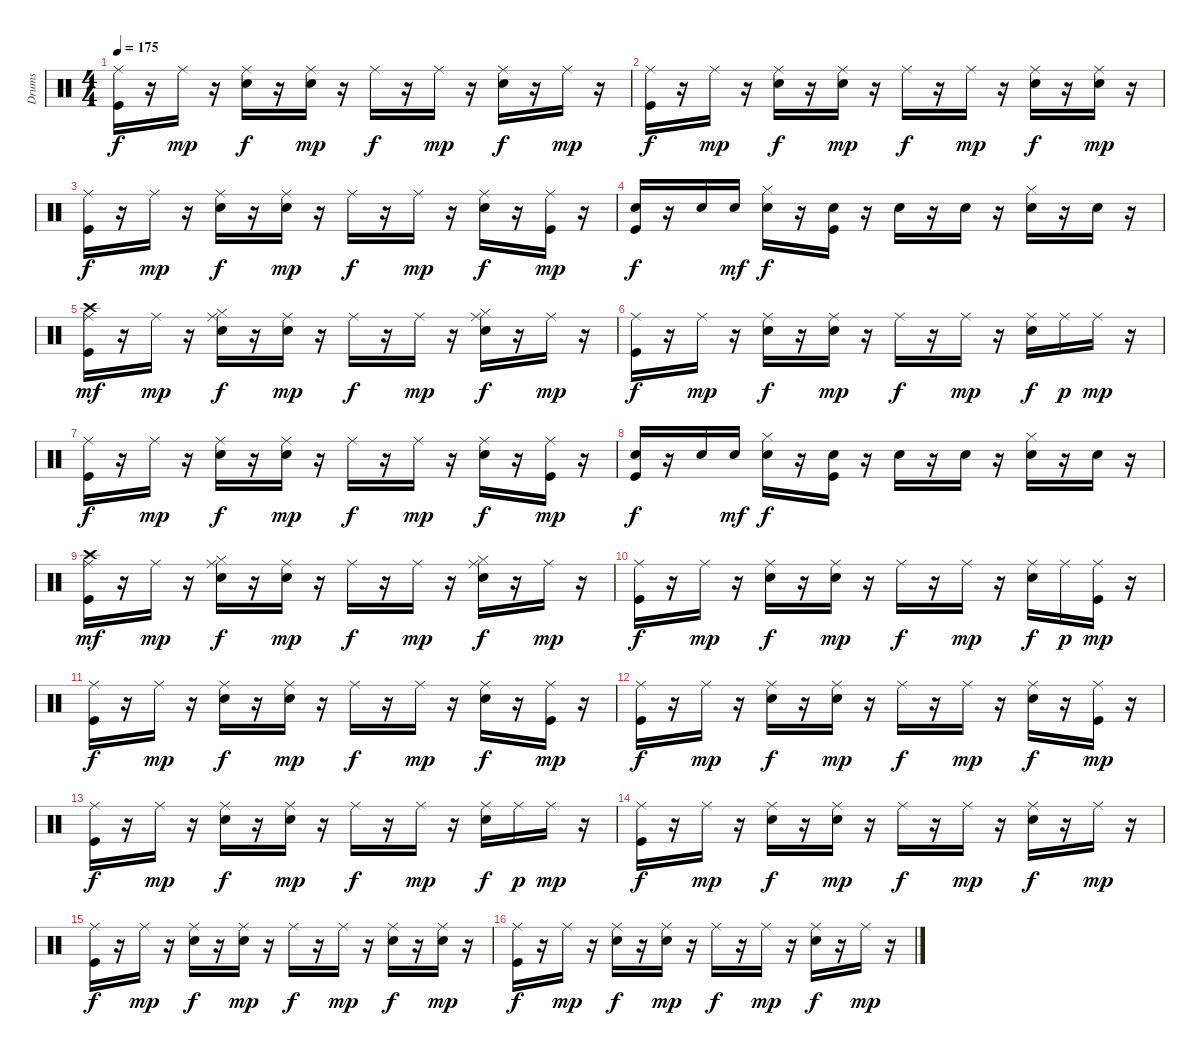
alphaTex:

\track ("Drums" "Drums") {instrument percussion}
\staff {score}
\articulation defaults
\ts (4 4)
\tempo 175
\clef neutral
\ks c
("Kick (hit)" "Ride (middle)").16{dy f} r.16 "Ride (middle)".16{dy mp} r.16 ("Snare (hit) 2" "Ride (middle)").16{dy f} r.16 ("Snare (hit) 2" "Ride (middle)").16{dy mp} r.16 "Ride (middle)".16{dy f} r.16 "Ride (middle)".16{dy mp} r.16 ("Snare (hit) 2" "Ride (middle)").16{dy f} r.16 "Ride (middle)".16{dy mp} r.16 |
("Kick (hit)" "Ride (middle)").16{dy f} r.16 "Ride (middle)".16{dy mp} r.16 ("Snare (hit) 2" "Ride (middle)").16{dy f} r.16 ("Snare (hit) 2" "Ride (middle)").16{dy mp} r.16 "Ride (middle)".16{dy f} r.16 "Ride (middle)".16{dy mp} r.16 ("Snare (hit) 2" "Ride (middle)").16{dy f} r.16 ("Snare (hit) 2" "Ride (middle)").16{dy mp} r.16 |
("Kick (hit)" "Ride (middle)").16{dy f} r.16 "Ride (middle)".16{dy mp} r.16 ("Snare (hit) 2" "Ride (middle)").16{dy f} r.16 ("Snare (hit) 2" "Ride (middle)").16{dy mp} r.16 "Ride (middle)".16{dy f} r.16 "Ride (middle)".16{dy mp} r.16 ("Snare (hit) 2" "Ride (middle)").16{dy f} r.16 ("Kick (hit)" "Ride (middle)").16{dy mp} r.16 |
("Kick (hit)" "Snare (hit) 2").16{dy f} r.16 "Snare (hit) 2".16 "Snare (hit) 2".16{dy mf} ("Snare (hit) 2" "Hi-Hat (closed)").16{dy f} r.16 ("Kick (hit)" "Snare (hit) 2").16 r.16 "Snare (hit) 2".16 r.16 "Snare (hit) 2".16 r.16 ("Snare (hit) 2" "Hi-Hat (closed)").16 r.16 "Snare (hit) 2".16 r.16 |
("Kick (hit)" "Ride (middle)" "Crash high (hit)").16{dy mf} r.16 "Ride (middle)".16{dy mp} r.16 ("Snare (hit) 2" "Hi-Hat (closed)" "Ride (middle)").16{dy f} r.16 ("Snare (hit) 2" "Ride (middle)").16{dy mp} r.16 "Ride (middle)".16{dy f} r.16 "Ride (middle)".16{dy mp} r.16 ("Snare (hit) 2" "Hi-Hat (closed)" "Ride (middle)").16{dy f} r.16 "Ride (middle)".16{dy mp} r.16 |
("Kick (hit)" "Ride (middle)").16{dy f} r.16 "Ride (middle)".16{dy mp} r.16 ("Snare (hit) 2" "Ride (middle)").16{dy f} r.16 ("Snare (hit) 2" "Ride (middle)").16{dy mp} r.16 "Ride (middle)".16{dy f} r.16 "Ride (middle)".16{dy mp} r.16 ("Snare (hit) 2" "Ride (middle)").16{dy f} "Ride (middle)".16{dy p} "Ride (middle)".16{dy mp} r.16 |
("Kick (hit)" "Ride (middle)").16{dy f} r.16 "Ride (middle)".16{dy mp} r.16 ("Snare (hit) 2" "Ride (middle)").16{dy f} r.16 ("Snare (hit) 2" "Ride (middle)").16{dy mp} r.16 "Ride (middle)".16{dy f} r.16 "Ride (middle)".16{dy mp} r.16 ("Snare (hit) 2" "Ride (middle)").16{dy f} r.16 ("Kick (hit)" "Ride (middle)").16{dy mp} r.16 |
("Kick (hit)" "Snare (hit) 2").16{dy f} r.16 "Snare (hit) 2".16 "Snare (hit) 2".16{dy mf} ("Snare (hit) 2" "Hi-Hat (closed)").16{dy f} r.16 ("Kick (hit)" "Snare (hit) 2").16 r.16 "Snare (hit) 2".16 r.16 "Snare (hit) 2".16 r.16 ("Snare (hit) 2" "Hi-Hat (closed)").16 r.16 "Snare (hit) 2".16 r.16 |
("Kick (hit)" "Ride (middle)" "Crash high (hit)").16{dy mf} r.16 "Ride (middle)".16{dy mp} r.16 ("Snare (hit) 2" "Hi-Hat (closed)" "Ride (middle)").16{dy f} r.16 ("Snare (hit) 2" "Ride (middle)").16{dy mp} r.16 "Ride (middle)".16{dy f} r.16 "Ride (middle)".16{dy mp} r.16 ("Snare (hit) 2" "Hi-Hat (closed)" "Ride (middle)").16{dy f} r.16 "Ride (middle)".16{dy mp} r.16 |
("Kick (hit)" "Ride (middle)").16{dy f} r.16 "Ride (middle)".16{dy mp} r.16 ("Snare (hit) 2" "Ride (middle)").16{dy f} r.16 ("Snare (hit) 2" "Ride (middle)").16{dy mp} r.16 "Ride (middle)".16{dy f} r.16 "Ride (middle)".16{dy mp} r.16 ("Snare (hit) 2" "Ride (middle)").16{dy f} "Ride (middle)".16{dy p} ("Kick (hit)" "Ride (middle)").16{dy mp} r.16 |
("Kick (hit)" "Ride (middle)").16{dy f} r.16 "Ride (middle)".16{dy mp} r.16 ("Snare (hit) 2" "Ride (middle)").16{dy f} r.16 ("Snare (hit) 2" "Ride (middle)").16{dy mp} r.16 "Ride (middle)".16{dy f} r.16 "Ride (middle)".16{dy mp} r.16 ("Snare (hit) 2" "Ride (middle)").16{dy f} r.16 ("Kick (hit)" "Ride (middle)").16{dy mp} r.16 |
("Kick (hit)" "Ride (middle)").16{dy f} r.16 "Ride (middle)".16{dy mp} r.16 ("Snare (hit) 2" "Ride (middle)").16{dy f} r.16 ("Snare (hit) 2" "Ride (middle)").16{dy mp} r.16 "Ride (middle)".16{dy f} r.16 "Ride (middle)".16{dy mp} r.16 ("Snare (hit) 2" "Ride (middle)").16{dy f} r.16 ("Kick (hit)" "Ride (middle)").16{dy mp} r.16 |
("Kick (hit)" "Ride (middle)").16{dy f} r.16 "Ride (middle)".16{dy mp} r.16 ("Snare (hit) 2" "Ride (middle)").16{dy f} r.16 ("Snare (hit) 2" "Ride (middle)").16{dy mp} r.16 "Ride (middle)".16{dy f} r.16 "Ride (middle)".16{dy mp} r.16 ("Snare (hit) 2" "Ride (middle)").16{dy f} "Ride (middle)".16{dy p} "Ride (middle)".16{dy mp} r.16 |
("Kick (hit)" "Ride (middle)").16{dy f} r.16 "Ride (middle)".16{dy mp} r.16 ("Snare (hit) 2" "Ride (middle)").16{dy f} r.16 ("Snare (hit) 2" "Ride (middle)").16{dy mp} r.16 "Ride (middle)".16{dy f} r.16 "Ride (middle)".16{dy mp} r.16 ("Snare (hit) 2" "Ride (middle)").16{dy f} r.16 "Ride (middle)".16{dy mp} r.16 |
("Kick (hit)" "Ride (middle)").16{dy f} r.16 "Ride (middle)".16{dy mp} r.16 ("Snare (hit) 2" "Ride (middle)").16{dy f} r.16 ("Snare (hit) 2" "Ride (middle)").16{dy mp} r.16 "Ride (middle)".16{dy f} r.16 "Ride (middle)".16{dy mp} r.16 ("Snare (hit) 2" "Ride (middle)").16{dy f} r.16 ("Snare (hit) 2" "Ride (middle)").16{dy mp} r.16 |
("Kick (hit)" "Ride (middle)").16{dy f} r.16 "Ride (middle)".16{dy mp} r.16 ("Snare (hit) 2" "Ride (middle)").16{dy f} r.16 ("Snare (hit) 2" "Ride (middle)").16{dy mp} r.16 "Ride (middle)".16{dy f} r.16 "Ride (middle)".16{dy mp} r.16 ("Snare (hit) 2" "Ride (middle)").16{dy f} r.16 "Ride (middle)".16{dy mp} r.16
